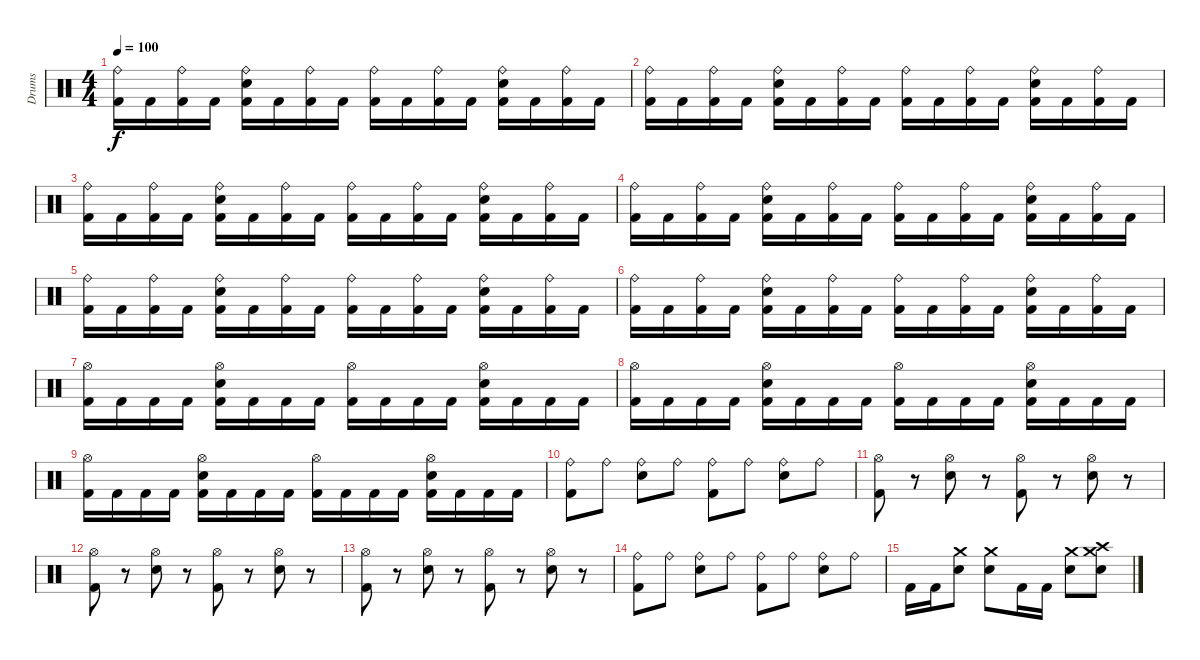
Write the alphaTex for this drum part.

\track ("Drums" "Drums") {instrument percussion}
\staff {score}
\articulation defaults
\ts (4 4)
\tempo 100
\clef neutral
\ks c
("Ride (bell)" "Kick (hit) 2").16{dy f} "Kick (hit) 2".16 ("Ride (bell)" "Kick (hit) 2").16 "Kick (hit) 2".16 ("Ride (bell)" "Snare (hit) 2" "Kick (hit) 2").16 "Kick (hit) 2".16 ("Ride (bell)" "Kick (hit) 2").16 "Kick (hit) 2".16 ("Ride (bell)" "Kick (hit) 2").16 "Kick (hit) 2".16 ("Ride (bell)" "Kick (hit) 2").16 "Kick (hit) 2".16 ("Ride (bell)" "Snare (hit) 2" "Kick (hit) 2").16 "Kick (hit) 2".16 ("Ride (bell)" "Kick (hit) 2").16 "Kick (hit) 2".16 |
("Ride (bell)" "Kick (hit) 2").16 "Kick (hit) 2".16 ("Ride (bell)" "Kick (hit) 2").16 "Kick (hit) 2".16 ("Ride (bell)" "Snare (hit) 2" "Kick (hit) 2").16 "Kick (hit) 2".16 ("Ride (bell)" "Kick (hit) 2").16 "Kick (hit) 2".16 ("Ride (bell)" "Kick (hit) 2").16 "Kick (hit) 2".16 ("Ride (bell)" "Kick (hit) 2").16 "Kick (hit) 2".16 ("Ride (bell)" "Snare (hit) 2" "Kick (hit) 2").16 "Kick (hit) 2".16 ("Ride (bell)" "Kick (hit) 2").16 "Kick (hit) 2".16 |
("Ride (bell)" "Kick (hit) 2").16 "Kick (hit) 2".16 ("Ride (bell)" "Kick (hit) 2").16 "Kick (hit) 2".16 ("Ride (bell)" "Snare (hit) 2" "Kick (hit) 2").16 "Kick (hit) 2".16 ("Ride (bell)" "Kick (hit) 2").16 "Kick (hit) 2".16 ("Ride (bell)" "Kick (hit) 2").16 "Kick (hit) 2".16 ("Ride (bell)" "Kick (hit) 2").16 "Kick (hit) 2".16 ("Ride (bell)" "Snare (hit) 2" "Kick (hit) 2").16 "Kick (hit) 2".16 ("Ride (bell)" "Kick (hit) 2").16 "Kick (hit) 2".16 |
("Ride (bell)" "Kick (hit) 2").16 "Kick (hit) 2".16 ("Ride (bell)" "Kick (hit) 2").16 "Kick (hit) 2".16 ("Ride (bell)" "Snare (hit) 2" "Kick (hit) 2").16 "Kick (hit) 2".16 ("Ride (bell)" "Kick (hit) 2").16 "Kick (hit) 2".16 ("Ride (bell)" "Kick (hit) 2").16 "Kick (hit) 2".16 ("Ride (bell)" "Kick (hit) 2").16 "Kick (hit) 2".16 ("Ride (bell)" "Snare (hit) 2" "Kick (hit) 2").16 "Kick (hit) 2".16 ("Ride (bell)" "Kick (hit) 2").16 "Kick (hit) 2".16 |
("Ride (bell)" "Kick (hit) 2").16 "Kick (hit) 2".16 ("Ride (bell)" "Kick (hit) 2").16 "Kick (hit) 2".16 ("Ride (bell)" "Snare (hit) 2" "Kick (hit) 2").16 "Kick (hit) 2".16 ("Ride (bell)" "Kick (hit) 2").16 "Kick (hit) 2".16 ("Ride (bell)" "Kick (hit) 2").16 "Kick (hit) 2".16 ("Ride (bell)" "Kick (hit) 2").16 "Kick (hit) 2".16 ("Ride (bell)" "Snare (hit) 2" "Kick (hit) 2").16 "Kick (hit) 2".16 ("Ride (bell)" "Kick (hit) 2").16 "Kick (hit) 2".16 |
("Ride (bell)" "Kick (hit) 2").16 "Kick (hit) 2".16 ("Ride (bell)" "Kick (hit) 2").16 "Kick (hit) 2".16 ("Ride (bell)" "Snare (hit) 2" "Kick (hit) 2").16 "Kick (hit) 2".16 ("Ride (bell)" "Kick (hit) 2").16 "Kick (hit) 2".16 ("Ride (bell)" "Kick (hit) 2").16 "Kick (hit) 2".16 ("Ride (bell)" "Kick (hit) 2").16 "Kick (hit) 2".16 ("Ride (bell)" "Snare (hit) 2" "Kick (hit) 2").16 "Kick (hit) 2".16 ("Ride (bell)" "Kick (hit) 2").16 "Kick (hit) 2".16 |
("Hi-Hat (open)" "Kick (hit) 2").16 "Kick (hit) 2".16 "Kick (hit) 2".16 "Kick (hit) 2".16 ("Hi-Hat (open)" "Snare (hit) 2" "Kick (hit) 2").16 "Kick (hit) 2".16 "Kick (hit) 2".16 "Kick (hit) 2".16 ("Hi-Hat (open)" "Kick (hit) 2").16 "Kick (hit) 2".16 "Kick (hit) 2".16 "Kick (hit) 2".16 ("Hi-Hat (open)" "Snare (hit) 2" "Kick (hit) 2").16 "Kick (hit) 2".16 "Kick (hit) 2".16 "Kick (hit) 2".16 |
("Hi-Hat (open)" "Kick (hit) 2").16 "Kick (hit) 2".16 "Kick (hit) 2".16 "Kick (hit) 2".16 ("Hi-Hat (open)" "Snare (hit) 2" "Kick (hit) 2").16 "Kick (hit) 2".16 "Kick (hit) 2".16 "Kick (hit) 2".16 ("Hi-Hat (open)" "Kick (hit) 2").16 "Kick (hit) 2".16 "Kick (hit) 2".16 "Kick (hit) 2".16 ("Hi-Hat (open)" "Snare (hit) 2" "Kick (hit) 2").16 "Kick (hit) 2".16 "Kick (hit) 2".16 "Kick (hit) 2".16 |
("Hi-Hat (open)" "Kick (hit) 2").16 "Kick (hit) 2".16 "Kick (hit) 2".16 "Kick (hit) 2".16 ("Hi-Hat (open)" "Snare (hit) 2" "Kick (hit) 2").16 "Kick (hit) 2".16 "Kick (hit) 2".16 "Kick (hit) 2".16 ("Hi-Hat (open)" "Kick (hit) 2").16 "Kick (hit) 2".16 "Kick (hit) 2".16 "Kick (hit) 2".16 ("Hi-Hat (open)" "Snare (hit) 2" "Kick (hit) 2").16 "Kick (hit) 2".16 "Kick (hit) 2".16 "Kick (hit) 2".16 |
("Ride (bell)" "Kick (hit) 2").8 "Ride (bell)".8 ("Ride (bell)" "Snare (hit) 2").8 "Ride (bell)".8 ("Ride (bell)" "Kick (hit) 2").8 "Ride (bell)".8 ("Ride (bell)" "Snare (hit) 2").8 "Ride (bell)".8 |
("Hi-Hat (open)" "Kick (hit) 2").8 r.8 ("Hi-Hat (open)" "Snare (hit) 2").8 r.8 ("Hi-Hat (open)" "Kick (hit) 2").8 r.8 ("Hi-Hat (open)" "Snare (hit) 2").8 r.8 |
("Hi-Hat (open)" "Kick (hit) 2").8 r.8 ("Hi-Hat (open)" "Snare (hit) 2").8 r.8 ("Hi-Hat (open)" "Kick (hit) 2").8 r.8 ("Hi-Hat (open)" "Snare (hit) 2").8 r.8 |
("Hi-Hat (open)" "Kick (hit) 2").8 r.8 ("Hi-Hat (open)" "Snare (hit) 2").8 r.8 ("Hi-Hat (open)" "Kick (hit) 2").8 r.8 ("Hi-Hat (open)" "Snare (hit) 2").8 r.8 |
("Ride (bell)" "Kick (hit) 2").8 "Ride (bell)".8 ("Ride (bell)" "Snare (hit) 2").8 "Ride (bell)".8 ("Ride (bell)" "Kick (hit) 2").8 "Ride (bell)".8 ("Ride (bell)" "Snare (hit) 2").8 "Ride (bell)".8 |
"Kick (hit) 2".16 "Kick (hit) 2".16 ("Crash medium (hit)" "Snare (hit) 2").8 ("Crash medium (hit)" "Snare (hit) 2").8 "Kick (hit) 2".16 "Kick (hit) 2".16 ("Crash medium (hit)" "Snare (hit) 2").8 ("Crash high (hit)" "Crash medium (hit)" "Snare (hit) 2").8
